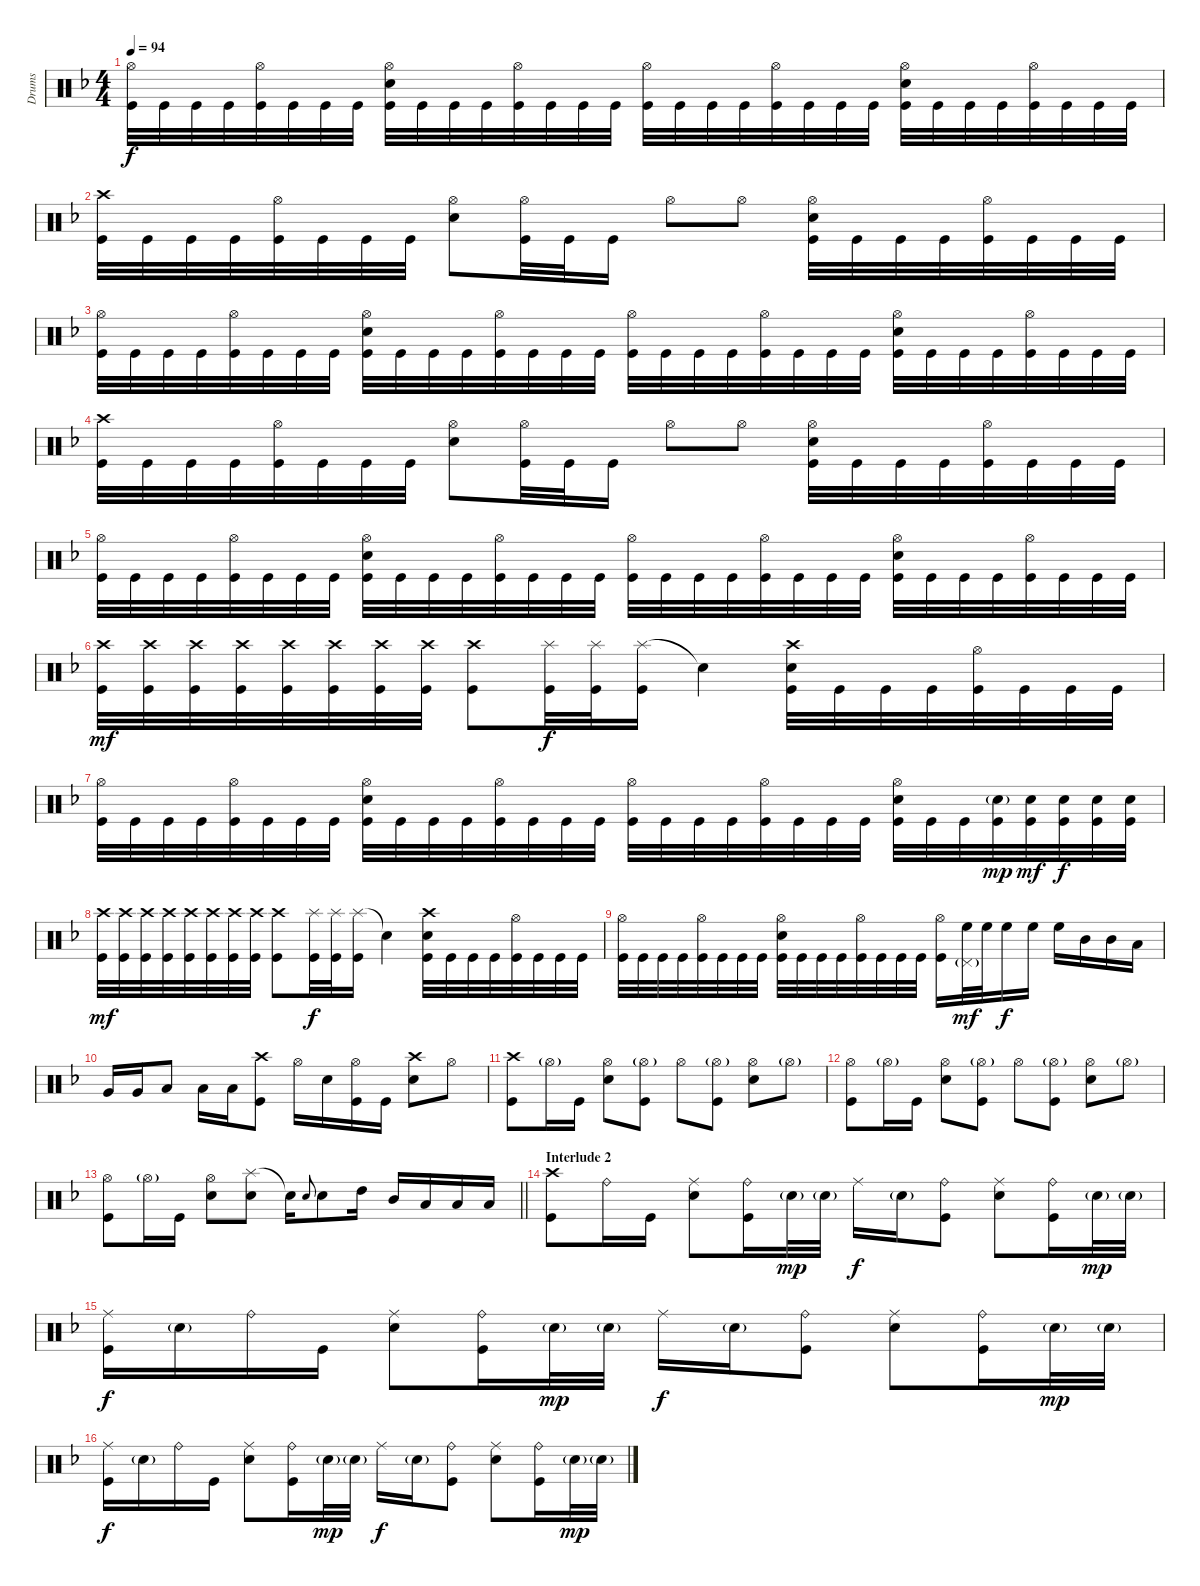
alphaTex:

\track ("Drums" "Drums") {instrument percussion bank 10}
\staff {score}
\articulation defaults
\ts (4 4)
\tempo 94
\clef neutral
\ks dminor
("Hi-Hat (open)" "Kick (hit)").32{dy f} "Kick (hit)".32 "Kick (hit)".32 "Kick (hit)".32 ("Hi-Hat (open)" "Kick (hit)").32 "Kick (hit)".32 "Kick (hit)".32 "Kick (hit)".32 ("Hi-Hat (open)" "Electric Snare (hit)" "Kick (hit)").32 "Kick (hit)".32 "Kick (hit)".32 "Kick (hit)".32 ("Hi-Hat (open)" "Kick (hit)").32 "Kick (hit)".32 "Kick (hit)".32 "Kick (hit)".32 ("Hi-Hat (open)" "Kick (hit)").32 "Kick (hit)".32 "Kick (hit)".32 "Kick (hit)".32 ("Hi-Hat (open)" "Kick (hit)").32 "Kick (hit)".32 "Kick (hit)".32 "Kick (hit)".32 ("Hi-Hat (open)" "Electric Snare (hit)" "Kick (hit)").32 "Kick (hit)".32 "Kick (hit)".32 "Kick (hit)".32 ("Hi-Hat (open)" "Kick (hit)").32 "Kick (hit)".32 "Kick (hit)".32 "Kick (hit)".32 |
("Crash high (hit)" "Kick (hit)").32 "Kick (hit)".32 "Kick (hit)".32 "Kick (hit)".32 ("Hi-Hat (open)" "Kick (hit)").32 "Kick (hit)".32 "Kick (hit)".32 "Kick (hit)".32 ("Hi-Hat (open)" "Electric Snare (hit)").8 ("Hi-Hat (open)" "Kick (hit)").32 "Kick (hit)".32 "Kick (hit)".16 "Hi-Hat (open)".8 "Hi-Hat (open)".8 ("Hi-Hat (open)" "Electric Snare (hit)" "Kick (hit)").32 "Kick (hit)".32 "Kick (hit)".32 "Kick (hit)".32 ("Hi-Hat (open)" "Kick (hit)").32 "Kick (hit)".32 "Kick (hit)".32 "Kick (hit)".32 |
("Hi-Hat (open)" "Kick (hit)").32 "Kick (hit)".32 "Kick (hit)".32 "Kick (hit)".32 ("Hi-Hat (open)" "Kick (hit)").32 "Kick (hit)".32 "Kick (hit)".32 "Kick (hit)".32 ("Hi-Hat (open)" "Electric Snare (hit)" "Kick (hit)").32 "Kick (hit)".32 "Kick (hit)".32 "Kick (hit)".32 ("Hi-Hat (open)" "Kick (hit)").32 "Kick (hit)".32 "Kick (hit)".32 "Kick (hit)".32 ("Hi-Hat (open)" "Kick (hit)").32 "Kick (hit)".32 "Kick (hit)".32 "Kick (hit)".32 ("Hi-Hat (open)" "Kick (hit)").32 "Kick (hit)".32 "Kick (hit)".32 "Kick (hit)".32 ("Hi-Hat (open)" "Electric Snare (hit)" "Kick (hit)").32 "Kick (hit)".32 "Kick (hit)".32 "Kick (hit)".32 ("Hi-Hat (open)" "Kick (hit)").32 "Kick (hit)".32 "Kick (hit)".32 "Kick (hit)".32 |
("Crash high (hit)" "Kick (hit)").32 "Kick (hit)".32 "Kick (hit)".32 "Kick (hit)".32 ("Hi-Hat (open)" "Kick (hit)").32 "Kick (hit)".32 "Kick (hit)".32 "Kick (hit)".32 ("Hi-Hat (open)" "Electric Snare (hit)").8 ("Hi-Hat (open)" "Kick (hit)").32 "Kick (hit)".32 "Kick (hit)".16 "Hi-Hat (open)".8 "Hi-Hat (open)".8 ("Hi-Hat (open)" "Electric Snare (hit)" "Kick (hit)").32 "Kick (hit)".32 "Kick (hit)".32 "Kick (hit)".32 ("Hi-Hat (open)" "Kick (hit)").32 "Kick (hit)".32 "Kick (hit)".32 "Kick (hit)".32 |
("Hi-Hat (open)" "Kick (hit)").32 "Kick (hit)".32 "Kick (hit)".32 "Kick (hit)".32 ("Hi-Hat (open)" "Kick (hit)").32 "Kick (hit)".32 "Kick (hit)".32 "Kick (hit)".32 ("Hi-Hat (open)" "Electric Snare (hit)" "Kick (hit)").32 "Kick (hit)".32 "Kick (hit)".32 "Kick (hit)".32 ("Hi-Hat (open)" "Kick (hit)").32 "Kick (hit)".32 "Kick (hit)".32 "Kick (hit)".32 ("Hi-Hat (open)" "Kick (hit)").32 "Kick (hit)".32 "Kick (hit)".32 "Kick (hit)".32 ("Hi-Hat (open)" "Kick (hit)").32 "Kick (hit)".32 "Kick (hit)".32 "Kick (hit)".32 ("Hi-Hat (open)" "Electric Snare (hit)" "Kick (hit)").32 "Kick (hit)".32 "Kick (hit)".32 "Kick (hit)".32 ("Hi-Hat (open)" "Kick (hit)").32 "Kick (hit)".32 "Kick (hit)".32 "Kick (hit)".32 |
("Crash high (hit)" "Kick (hit)").32{dy mf} ("Crash high (hit)" "Kick (hit)").32 ("Crash high (hit)" "Kick (hit)").32 ("Crash high (hit)" "Kick (hit)").32 ("Crash high (hit)" "Kick (hit)").32 ("Crash high (hit)" "Kick (hit)").32 ("Crash high (hit)" "Kick (hit)").32 ("Crash high (hit)" "Kick (hit)").32 ("Crash high (hit)" "Kick (hit)").8 ("Splash (hit)" "Kick (hit)").32{dy f} ("Splash (hit)" "Kick (hit)").32 ("Splash (hit)" "Kick (hit)").16 "Snare (hit)"{t}.4 ("Crash high (hit)" "Electric Snare (hit)" "Kick (hit)").32 "Kick (hit)".32 "Kick (hit)".32 "Kick (hit)".32 ("Hi-Hat (open)" "Kick (hit)").32 "Kick (hit)".32 "Kick (hit)".32 "Kick (hit)".32 |
("Hi-Hat (open)" "Kick (hit)").32 "Kick (hit)".32 "Kick (hit)".32 "Kick (hit)".32 ("Hi-Hat (open)" "Kick (hit)").32 "Kick (hit)".32 "Kick (hit)".32 "Kick (hit)".32 ("Hi-Hat (open)" "Electric Snare (hit)" "Kick (hit)").32 "Kick (hit)".32 "Kick (hit)".32 "Kick (hit)".32 ("Hi-Hat (open)" "Kick (hit)").32 "Kick (hit)".32 "Kick (hit)".32 "Kick (hit)".32 ("Hi-Hat (open)" "Kick (hit)").32 "Kick (hit)".32 "Kick (hit)".32 "Kick (hit)".32 ("Hi-Hat (open)" "Kick (hit)").32 "Kick (hit)".32 "Kick (hit)".32 "Kick (hit)".32 ("Hi-Hat (open)" "Electric Snare (hit)" "Kick (hit)").32 "Kick (hit)".32 "Kick (hit)".32 ("Electric Snare (hit)"{g} "Kick (hit)").32{dy mp} ("Electric Snare (hit)" "Kick (hit)").32{dy mf} ("Electric Snare (hit)" "Kick (hit)").32{dy f} ("Electric Snare (hit)" "Kick (hit)").32 ("Electric Snare (hit)" "Kick (hit)").32 |
("Crash high (hit)" "Kick (hit)").32{dy mf} ("Crash high (hit)" "Kick (hit)").32 ("Crash high (hit)" "Kick (hit)").32 ("Crash high (hit)" "Kick (hit)").32 ("Crash high (hit)" "Kick (hit)").32 ("Crash high (hit)" "Kick (hit)").32 ("Crash high (hit)" "Kick (hit)").32 ("Crash high (hit)" "Kick (hit)").32 ("Crash high (hit)" "Kick (hit)").8 ("Splash (hit)" "Kick (hit)").32{dy f} ("Splash (hit)" "Kick (hit)").32 ("Splash (hit)" "Kick (hit)").16 "Snare (hit)"{t}.4 ("Crash high (hit)" "Electric Snare (hit)" "Kick (hit)").32 "Kick (hit)".32 "Kick (hit)".32 "Kick (hit)".32 ("Hi-Hat (open)" "Kick (hit)").32 "Kick (hit)".32 "Kick (hit)".32 "Kick (hit)".32 |
("Hi-Hat (open)" "Kick (hit)").32 "Kick (hit)".32 "Kick (hit)".32 "Kick (hit)".32 ("Hi-Hat (open)" "Kick (hit)").32 "Kick (hit)".32 "Kick (hit)".32 "Kick (hit)".32 ("Hi-Hat (open)" "Electric Snare (hit)" "Kick (hit)").32 "Kick (hit)".32 "Kick (hit)".32 "Kick (hit)".32 ("Hi-Hat (open)" "Kick (hit)").32 "Kick (hit)".32 "Kick (hit)".32 "Kick (hit)".32 ("Hi-Hat (open)" "Kick (hit)").16 ("Pedal Hi-Hat (hit)"{g} "High Floor Tom (hit)").32{dy mf} "High Floor Tom (hit)".32 "High Floor Tom (hit)".16{dy f} "High Floor Tom (hit)".16 "High Floor Tom (hit)".16 "Mid Tom (hit)".16 "Mid Tom (hit)".16 "Low Tom (hit)".16 |
"Very Low Tom (hit)".16 "Very Low Tom (hit)".16 "Low Floor Tom (hit)".8 "Low Floor Tom (hit)".16 "Low Floor Tom (hit)".16 ("Crash high (hit)" "Kick (hit)").8 "Hi-Hat (open)".16 "Electric Snare (hit)".16 ("Hi-Hat (open)" "Kick (hit)").16 "Kick (hit)".16 ("Crash high (hit)" "Electric Snare (hit)").8 "Hi-Hat (open)".8 |
("Crash high (hit)" "Kick (hit)").8 "Hi-Hat (open)"{g}.16 "Kick (hit)".16 ("Hi-Hat (open)" "Electric Snare (hit)").8 ("Hi-Hat (open)"{g} "Kick (hit)").8 "Hi-Hat (open)".8 ("Hi-Hat (open)"{g} "Kick (hit)").8 ("Hi-Hat (open)" "Electric Snare (hit)").8 "Hi-Hat (open)"{g}.8 |
("Hi-Hat (open)" "Kick (hit)").8 "Hi-Hat (open)"{g}.16 "Kick (hit)".16 ("Hi-Hat (open)" "Electric Snare (hit)").8 ("Hi-Hat (open)"{g} "Kick (hit)").8 "Hi-Hat (open)".8 ("Hi-Hat (open)"{g} "Kick (hit)").8 ("Hi-Hat (open)" "Electric Snare (hit)").8 "Hi-Hat (open)"{g}.8 |
\barLineRight lightlight
("Hi-Hat (open)" "Kick (hit)").8 "Hi-Hat (open)"{g}.16 "Kick (hit)".16 ("Hi-Hat (open)" "Electric Snare (hit)").8 ("Splash (hit)" "Electric Snare (hit)").8 "Snare (hit)"{t}.16 "Electric Snare (hit)".8{gr onbeat} "Electric Snare (hit)".8 "High Tom (hit)".16 "Mid Tom (hit)".16 "Low Tom (hit)".16 "Low Tom (hit)".16 "Low Tom (hit)".16 |
\section ("" "Interlude 2")
("Crash high (hit)" "Kick (hit)").8 "Ride (bell)".16 "Kick (hit)".16 ("Ride (middle)" "Electric Snare (hit)").8 ("Ride (bell)" "Kick (hit)").16 "Electric Snare (hit)"{g}.32{dy mp} "Electric Snare (hit)"{g}.32 "Ride (middle)".16{dy f} "Electric Snare (hit)"{g}.16 ("Ride (bell)" "Kick (hit)").8 ("Ride (middle)" "Electric Snare (hit)").8 ("Ride (bell)" "Kick (hit)").16 "Electric Snare (hit)"{g}.32{dy mp} "Electric Snare (hit)"{g}.32 |
("Ride (middle)" "Kick (hit)").16{dy f} "Electric Snare (hit)"{g}.16 "Ride (bell)".16 "Kick (hit)".16 ("Ride (middle)" "Electric Snare (hit)").8 ("Ride (bell)" "Kick (hit)").16 "Electric Snare (hit)"{g}.32{dy mp} "Electric Snare (hit)"{g}.32 "Ride (middle)".16{dy f} "Electric Snare (hit)"{g}.16 ("Ride (bell)" "Kick (hit)").8 ("Ride (middle)" "Electric Snare (hit)").8 ("Ride (bell)" "Kick (hit)").16 "Electric Snare (hit)"{g}.32{dy mp} "Electric Snare (hit)"{g}.32 |
("Ride (middle)" "Kick (hit)").16{dy f} "Electric Snare (hit)"{g}.16 "Ride (bell)".16 "Kick (hit)".16 ("Ride (middle)" "Electric Snare (hit)").8 ("Ride (bell)" "Kick (hit)").16 "Electric Snare (hit)"{g}.32{dy mp} "Electric Snare (hit)"{g}.32 "Ride (middle)".16{dy f} "Electric Snare (hit)"{g}.16 ("Ride (bell)" "Kick (hit)").8 ("Ride (middle)" "Electric Snare (hit)").8 ("Ride (bell)" "Kick (hit)").16 "Electric Snare (hit)"{g}.32{dy mp} "Electric Snare (hit)"{g}.32
